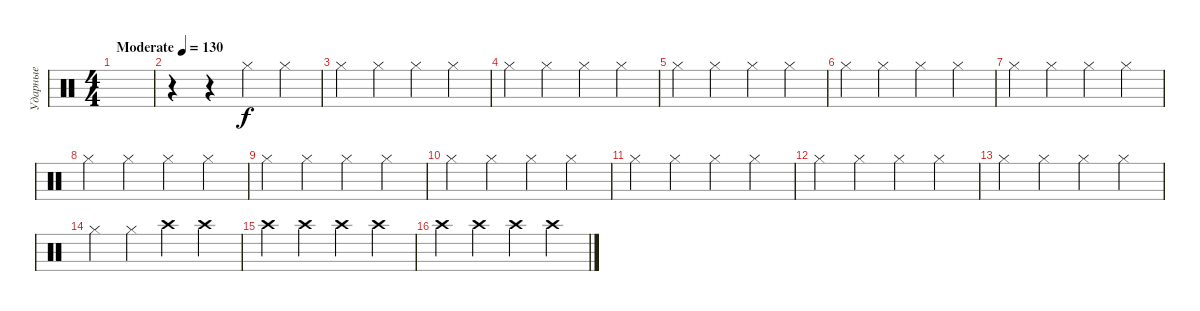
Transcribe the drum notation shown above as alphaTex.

\track ("Ударные" "Ударные") {instrument percussion}
\staff {score}
\articulation defaults
\ts (4 4)
\tempo (130 "Moderate")
\clef neutral
\ks c
|
r.4 r.4 "Hi-Hat (closed)".4 "Hi-Hat (closed)".4 |
"Hi-Hat (closed)".4 "Hi-Hat (closed)".4 "Hi-Hat (closed)".4 "Hi-Hat (closed)".4 |
"Hi-Hat (closed)".4 "Hi-Hat (closed)".4 "Hi-Hat (closed)".4 "Hi-Hat (closed)".4 |
"Hi-Hat (closed)".4 "Hi-Hat (closed)".4 "Hi-Hat (closed)".4 "Hi-Hat (closed)".4 |
"Hi-Hat (closed)".4 "Hi-Hat (closed)".4 "Hi-Hat (closed)".4 "Hi-Hat (closed)".4 |
"Hi-Hat (closed)".4 "Hi-Hat (closed)".4 "Hi-Hat (closed)".4 "Hi-Hat (closed)".4 |
"Hi-Hat (closed)".4 "Hi-Hat (closed)".4 "Hi-Hat (closed)".4 "Hi-Hat (closed)".4 |
"Hi-Hat (closed)".4 "Hi-Hat (closed)".4 "Hi-Hat (closed)".4 "Hi-Hat (closed)".4 |
"Hi-Hat (closed)".4 "Hi-Hat (closed)".4 "Hi-Hat (closed)".4 "Hi-Hat (closed)".4 |
"Hi-Hat (closed)".4 "Hi-Hat (closed)".4 "Hi-Hat (closed)".4 "Hi-Hat (closed)".4 |
"Hi-Hat (closed)".4 "Hi-Hat (closed)".4 "Hi-Hat (closed)".4 "Hi-Hat (closed)".4 |
"Hi-Hat (closed)".4 "Hi-Hat (closed)".4 "Hi-Hat (closed)".4 "Hi-Hat (closed)".4 |
"Hi-Hat (closed)".4 "Hi-Hat (closed)".4 "Crash high (hit)".4 "Crash high (hit)".4 |
"Crash high (hit)".4 "Crash high (hit)".4 "Crash high (hit)".4 "Crash high (hit)".4 |
"Crash high (hit)".4 "Crash high (hit)".4 "Crash high (hit)".4 "Crash high (hit)".4
